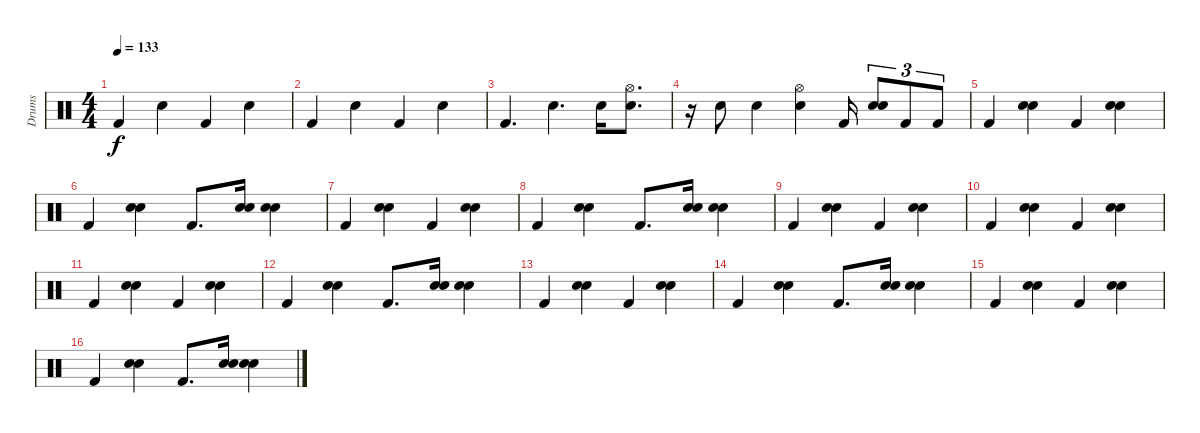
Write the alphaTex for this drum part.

\track ("Drums" "Drums") {instrument percussion}
\staff {score}
\articulation defaults
\ts (4 4)
\tempo 133
\clef neutral
\ks c "Kick (hit) 2".4{dy f} "Hand Clap (hit)".4 "Kick (hit) 2".4 "Hand Clap (hit)".4
|
"Kick (hit) 2".4 "Hand Clap (hit)".4 "Kick (hit) 2".4 "Hand Clap (hit)".4 |
"Kick (hit) 2".4{d} "Electric Snare (hit)".4{d} "Hand Clap (hit)".16 ("Electric Snare (hit)" "Hi-Hat (open)").8{d} |
r.16 "Electric Snare (hit)".8 "Electric Snare (hit)".4 ("Electric Snare (hit)" "Hi-Hat (open)").4 "Kick (hit) 2".16 ("Hand Clap (hit)" "Electric Snare (hit)").8{tu (3 2)} "Kick (hit) 2".8{tu (3 2)} "Kick (hit) 2".8{tu (3 2)} |
"Kick (hit) 2".4 ("Electric Snare (hit)" "Hand Clap (hit)").4 "Kick (hit) 2".4 ("Electric Snare (hit)" "Hand Clap (hit)").4 |
"Kick (hit) 2".4 ("Electric Snare (hit)" "Hand Clap (hit)").4 "Kick (hit) 2".8{d} ("Electric Snare (hit)" "Hand Clap (hit)").16 ("Electric Snare (hit)" "Hand Clap (hit)").4 |
"Kick (hit) 2".4 ("Electric Snare (hit)" "Hand Clap (hit)").4 "Kick (hit) 2".4 ("Electric Snare (hit)" "Hand Clap (hit)").4 |
"Kick (hit) 2".4 ("Electric Snare (hit)" "Hand Clap (hit)").4 "Kick (hit) 2".8{d} ("Electric Snare (hit)" "Hand Clap (hit)").16 ("Electric Snare (hit)" "Hand Clap (hit)").4 |
"Kick (hit) 2".4 ("Electric Snare (hit)" "Hand Clap (hit)").4 "Kick (hit) 2".4 ("Electric Snare (hit)" "Hand Clap (hit)").4 |
"Kick (hit) 2".4 ("Electric Snare (hit)" "Hand Clap (hit)").4 "Kick (hit) 2".4 ("Electric Snare (hit)" "Hand Clap (hit)").4 |
"Kick (hit) 2".4 ("Electric Snare (hit)" "Hand Clap (hit)").4 "Kick (hit) 2".4 ("Electric Snare (hit)" "Hand Clap (hit)").4 |
"Kick (hit) 2".4 ("Electric Snare (hit)" "Hand Clap (hit)").4 "Kick (hit) 2".8{d} ("Electric Snare (hit)" "Hand Clap (hit)").16 ("Electric Snare (hit)" "Hand Clap (hit)").4 |
"Kick (hit) 2".4 ("Electric Snare (hit)" "Hand Clap (hit)").4 "Kick (hit) 2".4 ("Electric Snare (hit)" "Hand Clap (hit)").4 |
"Kick (hit) 2".4 ("Electric Snare (hit)" "Hand Clap (hit)").4 "Kick (hit) 2".8{d} ("Electric Snare (hit)" "Hand Clap (hit)").16 ("Electric Snare (hit)" "Hand Clap (hit)").4 |
"Kick (hit) 2".4 ("Electric Snare (hit)" "Hand Clap (hit)").4 "Kick (hit) 2".4 ("Electric Snare (hit)" "Hand Clap (hit)").4 |
"Kick (hit) 2".4 ("Electric Snare (hit)" "Hand Clap (hit)").4 "Kick (hit) 2".8{d} ("Electric Snare (hit)" "Hand Clap (hit)").16 ("Electric Snare (hit)" "Hand Clap (hit)").4
